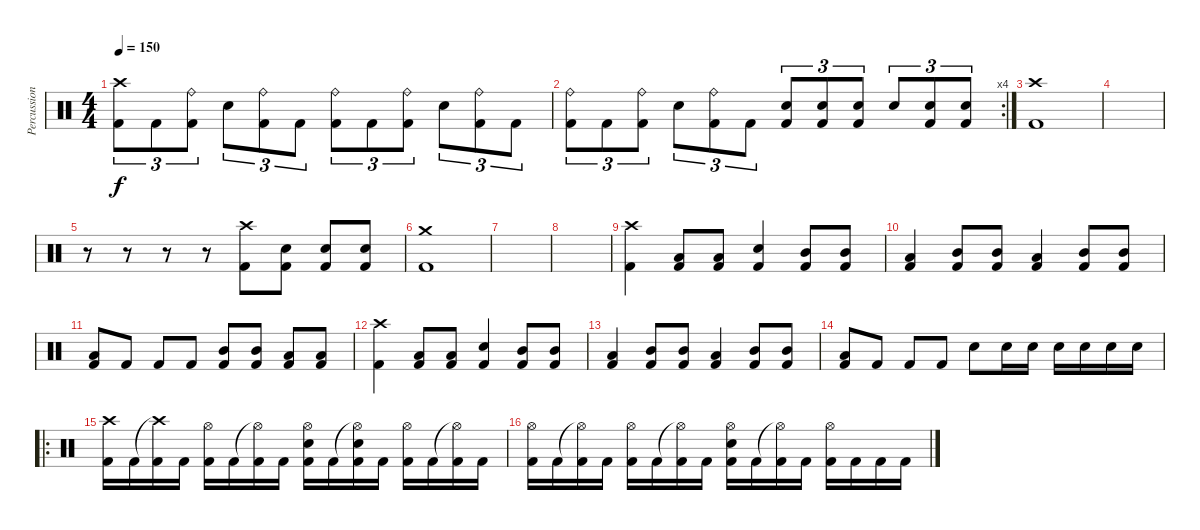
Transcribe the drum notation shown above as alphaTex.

\track ("Percussion" "Percussion") {instrument percussion}
\staff {score}
\articulation defaults
\ts (4 4)
\tempo 150
\clef neutral
\ks c
("Crash high (hit)" "Kick (hit) 2").8{tu (3 2) dy f} "Kick (hit) 2".8{tu (3 2)} ("Ride (bell)" "Kick (hit) 2").8{tu (3 2)} "Electric Snare (hit)".8{tu (3 2)} ("Ride (bell)" "Kick (hit) 2").8{tu (3 2)} "Kick (hit) 2".8{tu (3 2)} ("Ride (bell)" "Kick (hit) 2").8{tu (3 2)} "Kick (hit) 2".8{tu (3 2)} ("Ride (bell)" "Kick (hit) 2").8{tu (3 2)} "Electric Snare (hit)".8{tu (3 2)} ("Ride (bell)" "Kick (hit) 2").8{tu (3 2)} "Kick (hit) 2".8{tu (3 2)} |
\rc 4
("Ride (bell)" "Kick (hit) 2").8{tu (3 2)} "Kick (hit) 2".8{tu (3 2)} ("Ride (bell)" "Kick (hit) 2").8{tu (3 2)} "Electric Snare (hit)".8{tu (3 2)} ("Ride (bell)" "Kick (hit) 2").8{tu (3 2)} "Kick (hit) 2".8{tu (3 2)} ("Electric Snare (hit)" "Kick (hit) 2").8{tu (3 2)} ("Electric Snare (hit)" "Kick (hit) 2").8{tu (3 2)} ("Electric Snare (hit)" "Kick (hit) 2").8{tu (3 2)} "Electric Snare (hit)".8{tu (3 2)} ("Electric Snare (hit)" "Kick (hit) 2").8{tu (3 2)} ("Electric Snare (hit)" "Kick (hit) 2").8{tu (3 2)} |
("Crash high (hit)" "Kick (hit) 2").1 |
|
r.8 r.8 r.8 r.8 ("Crash high (hit)" "Kick (hit) 2").8 ("Electric Snare (hit)" "Kick (hit) 2").8 ("Electric Snare (hit)" "Kick (hit) 2").8 ("Electric Snare (hit)" "Kick (hit) 2").8 |
("Crash medium (hit)" "Kick (hit) 2").1 |
|
|
("Crash high (hit)" "Kick (hit) 2").4 ("Low Tom (hit)" "Kick (hit) 2").8 ("Low Tom (hit)" "Kick (hit) 2").8 ("Electric Snare (hit)" "Kick (hit) 2").4 ("Mid Tom (hit)" "Kick (hit) 2").8 ("Mid Tom (hit)" "Kick (hit) 2").8 |
("Low Tom (hit)" "Kick (hit) 2").4 ("Mid Tom (hit)" "Kick (hit) 2").8 ("Mid Tom (hit)" "Kick (hit) 2").8 ("Low Tom (hit)" "Kick (hit) 2").4 ("Mid Tom (hit)" "Kick (hit) 2").8 ("Mid Tom (hit)" "Kick (hit) 2").8 |
("Low Tom (hit)" "Kick (hit) 2").8 "Kick (hit) 2".8 "Kick (hit) 2".8 "Kick (hit) 2".8 ("Mid Tom (hit)" "Kick (hit) 2").8 ("Mid Tom (hit)" "Kick (hit) 2").8 ("Low Tom (hit)" "Kick (hit) 2").8 ("Low Tom (hit)" "Kick (hit) 2").8 |
("Crash high (hit)" "Kick (hit) 2").4 ("Low Tom (hit)" "Kick (hit) 2").8 ("Low Tom (hit)" "Kick (hit) 2").8 ("Electric Snare (hit)" "Kick (hit) 2").4 ("Mid Tom (hit)" "Kick (hit) 2").8 ("Mid Tom (hit)" "Kick (hit) 2").8 |
("Low Tom (hit)" "Kick (hit) 2").4 ("Mid Tom (hit)" "Kick (hit) 2").8 ("Mid Tom (hit)" "Kick (hit) 2").8 ("Low Tom (hit)" "Kick (hit) 2").4 ("Mid Tom (hit)" "Kick (hit) 2").8 ("Mid Tom (hit)" "Kick (hit) 2").8 |
("Low Tom (hit)" "Kick (hit) 2").8 "Kick (hit) 2".8 "Kick (hit) 2".8 "Kick (hit) 2".8 "Electric Snare (hit)".8 "Electric Snare (hit)".16 "Electric Snare (hit)".16 "Electric Snare (hit)".16 "Electric Snare (hit)".16 "Electric Snare (hit)".16 "Electric Snare (hit)".16 |
\ro
("Crash high (hit)" "Kick (hit) 2").16 "Kick (hit) 2".16 ("Crash high (hit)"{t} "Kick (hit) 2").16 "Kick (hit) 2".16 ("Hi-Hat (open)" "Kick (hit) 2").16 "Kick (hit) 2".16 ("Hi-Hat (open)"{t} "Kick (hit) 2").16 "Kick (hit) 2".16 ("Hi-Hat (open)" "Electric Snare (hit)" "Kick (hit) 2").16 "Kick (hit) 2".16 ("Hi-Hat (open)"{t} "Electric Snare (hit)" "Kick (hit) 2").16 "Kick (hit) 2".16 ("Hi-Hat (open)" "Kick (hit) 2").16 "Kick (hit) 2".16 ("Hi-Hat (open)"{t} "Kick (hit) 2").16 "Kick (hit) 2".16 |
("Hi-Hat (open)" "Kick (hit) 2").16 "Kick (hit) 2".16 ("Hi-Hat (open)"{t} "Kick (hit) 2").16 "Kick (hit) 2".16 ("Hi-Hat (open)" "Kick (hit) 2").16 "Kick (hit) 2".16 ("Hi-Hat (open)"{t} "Kick (hit) 2").16 "Kick (hit) 2".16 ("Hi-Hat (open)" "Electric Snare (hit)" "Kick (hit) 2").16 "Kick (hit) 2".16 ("Hi-Hat (open)"{t} "Kick (hit) 2").16 "Kick (hit) 2".16 ("Hi-Hat (open)" "Kick (hit) 2").16 "Kick (hit) 2".16 "Kick (hit) 2".16 "Kick (hit) 2".16
